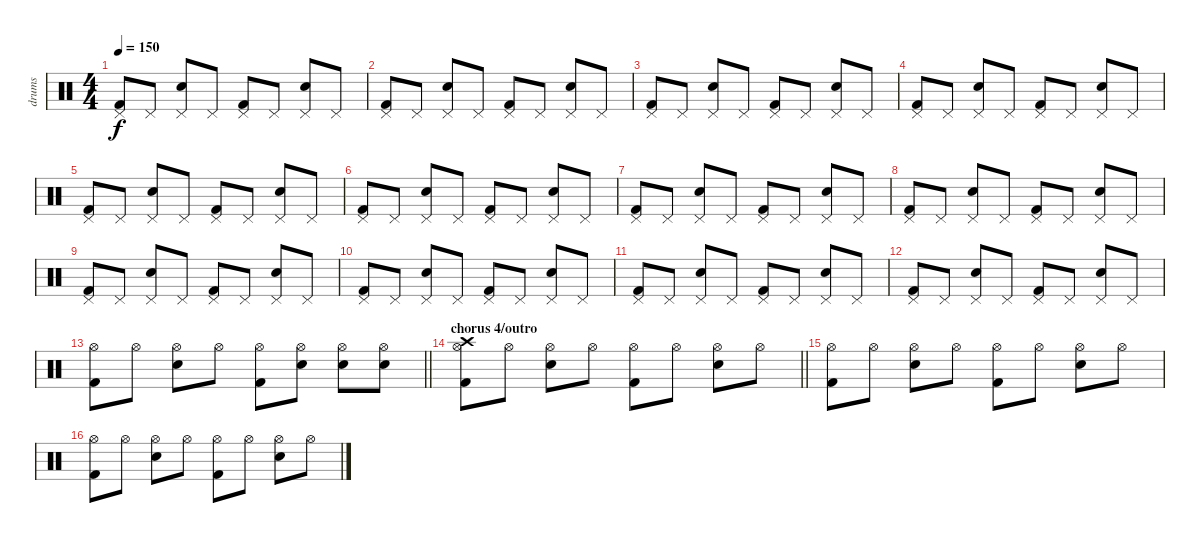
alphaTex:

\track ("drums" "drums") {instrument percussion}
\staff {score}
\articulation defaults
\ts (4 4)
\tempo 150
\clef neutral
\ks c
("Kick (hit) 2" "Pedal Hi-Hat (hit)").8{dy f} "Pedal Hi-Hat (hit)".8 ("Electric Snare (hit)" "Pedal Hi-Hat (hit)").8 "Pedal Hi-Hat (hit)".8 ("Kick (hit) 2" "Pedal Hi-Hat (hit)").8 "Pedal Hi-Hat (hit)".8 ("Electric Snare (hit)" "Pedal Hi-Hat (hit)").8 "Pedal Hi-Hat (hit)".8 |
("Kick (hit) 2" "Pedal Hi-Hat (hit)").8 "Pedal Hi-Hat (hit)".8 ("Electric Snare (hit)" "Pedal Hi-Hat (hit)").8 "Pedal Hi-Hat (hit)".8 ("Kick (hit) 2" "Pedal Hi-Hat (hit)").8 "Pedal Hi-Hat (hit)".8 ("Electric Snare (hit)" "Pedal Hi-Hat (hit)").8 "Pedal Hi-Hat (hit)".8 |
("Kick (hit) 2" "Pedal Hi-Hat (hit)").8 "Pedal Hi-Hat (hit)".8 ("Electric Snare (hit)" "Pedal Hi-Hat (hit)").8 "Pedal Hi-Hat (hit)".8 ("Kick (hit) 2" "Pedal Hi-Hat (hit)").8 "Pedal Hi-Hat (hit)".8 ("Electric Snare (hit)" "Pedal Hi-Hat (hit)").8 "Pedal Hi-Hat (hit)".8 |
("Kick (hit) 2" "Pedal Hi-Hat (hit)").8 "Pedal Hi-Hat (hit)".8 ("Electric Snare (hit)" "Pedal Hi-Hat (hit)").8 "Pedal Hi-Hat (hit)".8 ("Kick (hit) 2" "Pedal Hi-Hat (hit)").8 "Pedal Hi-Hat (hit)".8 ("Electric Snare (hit)" "Pedal Hi-Hat (hit)").8 "Pedal Hi-Hat (hit)".8 |
("Kick (hit) 2" "Pedal Hi-Hat (hit)").8 "Pedal Hi-Hat (hit)".8 ("Electric Snare (hit)" "Pedal Hi-Hat (hit)").8 "Pedal Hi-Hat (hit)".8 ("Kick (hit) 2" "Pedal Hi-Hat (hit)").8 "Pedal Hi-Hat (hit)".8 ("Electric Snare (hit)" "Pedal Hi-Hat (hit)").8 "Pedal Hi-Hat (hit)".8 |
("Kick (hit) 2" "Pedal Hi-Hat (hit)").8 "Pedal Hi-Hat (hit)".8 ("Electric Snare (hit)" "Pedal Hi-Hat (hit)").8 "Pedal Hi-Hat (hit)".8 ("Kick (hit) 2" "Pedal Hi-Hat (hit)").8 "Pedal Hi-Hat (hit)".8 ("Electric Snare (hit)" "Pedal Hi-Hat (hit)").8 "Pedal Hi-Hat (hit)".8 |
("Kick (hit) 2" "Pedal Hi-Hat (hit)").8 "Pedal Hi-Hat (hit)".8 ("Electric Snare (hit)" "Pedal Hi-Hat (hit)").8 "Pedal Hi-Hat (hit)".8 ("Kick (hit) 2" "Pedal Hi-Hat (hit)").8 "Pedal Hi-Hat (hit)".8 ("Electric Snare (hit)" "Pedal Hi-Hat (hit)").8 "Pedal Hi-Hat (hit)".8 |
("Kick (hit) 2" "Pedal Hi-Hat (hit)").8 "Pedal Hi-Hat (hit)".8 ("Electric Snare (hit)" "Pedal Hi-Hat (hit)").8 "Pedal Hi-Hat (hit)".8 ("Kick (hit) 2" "Pedal Hi-Hat (hit)").8 "Pedal Hi-Hat (hit)".8 ("Electric Snare (hit)" "Pedal Hi-Hat (hit)").8 "Pedal Hi-Hat (hit)".8 |
("Kick (hit) 2" "Pedal Hi-Hat (hit)").8 "Pedal Hi-Hat (hit)".8 ("Electric Snare (hit)" "Pedal Hi-Hat (hit)").8 "Pedal Hi-Hat (hit)".8 ("Kick (hit) 2" "Pedal Hi-Hat (hit)").8 "Pedal Hi-Hat (hit)".8 ("Electric Snare (hit)" "Pedal Hi-Hat (hit)").8 "Pedal Hi-Hat (hit)".8 |
("Kick (hit) 2" "Pedal Hi-Hat (hit)").8 "Pedal Hi-Hat (hit)".8 ("Electric Snare (hit)" "Pedal Hi-Hat (hit)").8 "Pedal Hi-Hat (hit)".8 ("Kick (hit) 2" "Pedal Hi-Hat (hit)").8 "Pedal Hi-Hat (hit)".8 ("Electric Snare (hit)" "Pedal Hi-Hat (hit)").8 "Pedal Hi-Hat (hit)".8 |
("Kick (hit) 2" "Pedal Hi-Hat (hit)").8 "Pedal Hi-Hat (hit)".8 ("Electric Snare (hit)" "Pedal Hi-Hat (hit)").8 "Pedal Hi-Hat (hit)".8 ("Kick (hit) 2" "Pedal Hi-Hat (hit)").8 "Pedal Hi-Hat (hit)".8 ("Electric Snare (hit)" "Pedal Hi-Hat (hit)").8 "Pedal Hi-Hat (hit)".8 |
("Kick (hit) 2" "Pedal Hi-Hat (hit)").8 "Pedal Hi-Hat (hit)".8 ("Electric Snare (hit)" "Pedal Hi-Hat (hit)").8 "Pedal Hi-Hat (hit)".8 ("Kick (hit) 2" "Pedal Hi-Hat (hit)").8 "Pedal Hi-Hat (hit)".8 ("Electric Snare (hit)" "Pedal Hi-Hat (hit)").8 "Pedal Hi-Hat (hit)".8 |
\barLineRight lightlight
("Kick (hit) 2" "Hi-Hat (open)").8 "Hi-Hat (open)".8 ("Electric Snare (hit)" "Hi-Hat (open)").8 "Hi-Hat (open)".8 ("Kick (hit) 2" "Hi-Hat (open)").8 ("Electric Snare (hit)" "Hi-Hat (open)").8{volume 16} ("Electric Snare (hit)" "Hi-Hat (open)").8 ("Electric Snare (hit)" "Hi-Hat (open)").8 |
\section ("" "chorus 4/outro")
\barLineRight lightlight
("Kick (hit) 2" "Hi-Hat (open)" "Crash high (hit)").8 "Hi-Hat (open)".8 ("Electric Snare (hit)" "Hi-Hat (open)").8 "Hi-Hat (open)".8 ("Kick (hit) 2" "Hi-Hat (open)").8 "Hi-Hat (open)".8 ("Electric Snare (hit)" "Hi-Hat (open)").8 "Hi-Hat (open)".8 |
("Kick (hit) 2" "Hi-Hat (open)").8 "Hi-Hat (open)".8 ("Electric Snare (hit)" "Hi-Hat (open)").8 "Hi-Hat (open)".8 ("Kick (hit) 2" "Hi-Hat (open)").8 "Hi-Hat (open)".8 ("Electric Snare (hit)" "Hi-Hat (open)").8 "Hi-Hat (open)".8 |
("Kick (hit) 2" "Hi-Hat (open)").8 "Hi-Hat (open)".8 ("Electric Snare (hit)" "Hi-Hat (open)").8 "Hi-Hat (open)".8 ("Kick (hit) 2" "Hi-Hat (open)").8 "Hi-Hat (open)".8 ("Electric Snare (hit)" "Hi-Hat (open)").8 "Hi-Hat (open)".8
